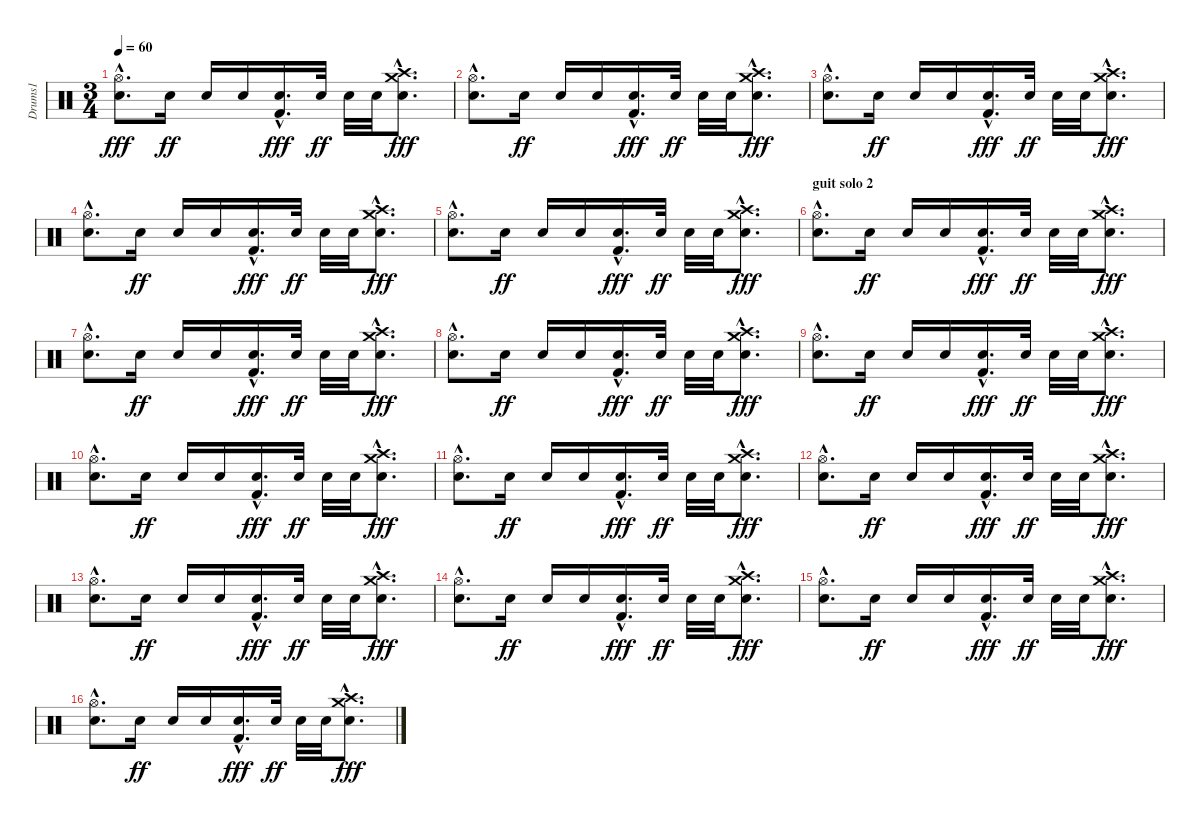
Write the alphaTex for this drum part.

\track ("Drums1" "Drums1") {instrument percussion}
\staff {score}
\articulation defaults
\ts (3 4)
\tempo 60
\clef neutral
\ks c
("Hi-Hat (open)"{hac} "Electric Snare (hit)"{hac}).8{d dy fff} "Electric Snare (hit)".16{dy ff} "Electric Snare (hit)".16 "Electric Snare (hit)".16 ("Kick (hit) 2"{hac} "Electric Snare (hit)"{hac}).16{d dy fff} "Electric Snare (hit)".32{dy ff} "Electric Snare (hit)".32 "Electric Snare (hit)".32 ("Crash high (hit)"{hac} "Crash medium (hit)"{hac} "Electric Snare (hit)"{hac}).8{d dy fff} |
("Hi-Hat (open)"{hac} "Electric Snare (hit)"{hac}).8{d} "Electric Snare (hit)".16{dy ff} "Electric Snare (hit)".16 "Electric Snare (hit)".16 ("Kick (hit) 2"{hac} "Electric Snare (hit)"{hac}).16{d dy fff} "Electric Snare (hit)".32{dy ff} "Electric Snare (hit)".32 "Electric Snare (hit)".32 ("Crash high (hit)"{hac} "Crash medium (hit)"{hac} "Electric Snare (hit)"{hac}).8{d dy fff} |
("Hi-Hat (open)"{hac} "Electric Snare (hit)"{hac}).8{d} "Electric Snare (hit)".16{dy ff} "Electric Snare (hit)".16 "Electric Snare (hit)".16 ("Kick (hit) 2"{hac} "Electric Snare (hit)"{hac}).16{d dy fff} "Electric Snare (hit)".32{dy ff} "Electric Snare (hit)".32 "Electric Snare (hit)".32 ("Crash high (hit)"{hac} "Crash medium (hit)"{hac} "Electric Snare (hit)"{hac}).8{d dy fff} |
("Hi-Hat (open)"{hac} "Electric Snare (hit)"{hac}).8{d} "Electric Snare (hit)".16{dy ff} "Electric Snare (hit)".16 "Electric Snare (hit)".16 ("Kick (hit) 2"{hac} "Electric Snare (hit)"{hac}).16{d dy fff} "Electric Snare (hit)".32{dy ff} "Electric Snare (hit)".32 "Electric Snare (hit)".32 ("Crash high (hit)"{hac} "Crash medium (hit)"{hac} "Electric Snare (hit)"{hac}).8{d dy fff} |
("Hi-Hat (open)"{hac} "Electric Snare (hit)"{hac}).8{d} "Electric Snare (hit)".16{dy ff} "Electric Snare (hit)".16 "Electric Snare (hit)".16 ("Kick (hit) 2"{hac} "Electric Snare (hit)"{hac}).16{d dy fff} "Electric Snare (hit)".32{dy ff} "Electric Snare (hit)".32 "Electric Snare (hit)".32 ("Crash high (hit)"{hac} "Crash medium (hit)"{hac} "Electric Snare (hit)"{hac}).8{d dy fff} |
\section ("" "guit solo 2")
("Hi-Hat (open)"{hac} "Electric Snare (hit)"{hac}).8{d} "Electric Snare (hit)".16{dy ff} "Electric Snare (hit)".16 "Electric Snare (hit)".16 ("Kick (hit) 2"{hac} "Electric Snare (hit)"{hac}).16{d dy fff} "Electric Snare (hit)".32{dy ff} "Electric Snare (hit)".32 "Electric Snare (hit)".32 ("Crash high (hit)"{hac} "Crash medium (hit)"{hac} "Electric Snare (hit)"{hac}).8{d dy fff} |
("Hi-Hat (open)"{hac} "Electric Snare (hit)"{hac}).8{d} "Electric Snare (hit)".16{dy ff} "Electric Snare (hit)".16 "Electric Snare (hit)".16 ("Kick (hit) 2"{hac} "Electric Snare (hit)"{hac}).16{d dy fff} "Electric Snare (hit)".32{dy ff} "Electric Snare (hit)".32 "Electric Snare (hit)".32 ("Crash high (hit)"{hac} "Crash medium (hit)"{hac} "Electric Snare (hit)"{hac}).8{d dy fff} |
("Hi-Hat (open)"{hac} "Electric Snare (hit)"{hac}).8{d} "Electric Snare (hit)".16{dy ff} "Electric Snare (hit)".16 "Electric Snare (hit)".16 ("Kick (hit) 2"{hac} "Electric Snare (hit)"{hac}).16{d dy fff} "Electric Snare (hit)".32{dy ff} "Electric Snare (hit)".32 "Electric Snare (hit)".32 ("Crash high (hit)"{hac} "Crash medium (hit)"{hac} "Electric Snare (hit)"{hac}).8{d dy fff} |
("Hi-Hat (open)"{hac} "Electric Snare (hit)"{hac}).8{d} "Electric Snare (hit)".16{dy ff} "Electric Snare (hit)".16 "Electric Snare (hit)".16 ("Kick (hit) 2"{hac} "Electric Snare (hit)"{hac}).16{d dy fff} "Electric Snare (hit)".32{dy ff} "Electric Snare (hit)".32 "Electric Snare (hit)".32 ("Crash high (hit)"{hac} "Crash medium (hit)"{hac} "Electric Snare (hit)"{hac}).8{d dy fff} |
("Hi-Hat (open)"{hac} "Electric Snare (hit)"{hac}).8{d} "Electric Snare (hit)".16{dy ff} "Electric Snare (hit)".16 "Electric Snare (hit)".16 ("Kick (hit) 2"{hac} "Electric Snare (hit)"{hac}).16{d dy fff} "Electric Snare (hit)".32{dy ff} "Electric Snare (hit)".32 "Electric Snare (hit)".32 ("Crash high (hit)"{hac} "Crash medium (hit)"{hac} "Electric Snare (hit)"{hac}).8{d dy fff} |
("Hi-Hat (open)"{hac} "Electric Snare (hit)"{hac}).8{d} "Electric Snare (hit)".16{dy ff} "Electric Snare (hit)".16 "Electric Snare (hit)".16 ("Kick (hit) 2"{hac} "Electric Snare (hit)"{hac}).16{d dy fff} "Electric Snare (hit)".32{dy ff} "Electric Snare (hit)".32 "Electric Snare (hit)".32 ("Crash high (hit)"{hac} "Crash medium (hit)"{hac} "Electric Snare (hit)"{hac}).8{d dy fff} |
("Hi-Hat (open)"{hac} "Electric Snare (hit)"{hac}).8{d} "Electric Snare (hit)".16{dy ff} "Electric Snare (hit)".16 "Electric Snare (hit)".16 ("Kick (hit) 2"{hac} "Electric Snare (hit)"{hac}).16{d dy fff} "Electric Snare (hit)".32{dy ff} "Electric Snare (hit)".32 "Electric Snare (hit)".32 ("Crash high (hit)"{hac} "Crash medium (hit)"{hac} "Electric Snare (hit)"{hac}).8{d dy fff} |
("Hi-Hat (open)"{hac} "Electric Snare (hit)"{hac}).8{d} "Electric Snare (hit)".16{dy ff} "Electric Snare (hit)".16 "Electric Snare (hit)".16 ("Kick (hit) 2"{hac} "Electric Snare (hit)"{hac}).16{d dy fff} "Electric Snare (hit)".32{dy ff} "Electric Snare (hit)".32 "Electric Snare (hit)".32 ("Crash high (hit)"{hac} "Crash medium (hit)"{hac} "Electric Snare (hit)"{hac}).8{d dy fff} |
("Hi-Hat (open)"{hac} "Electric Snare (hit)"{hac}).8{d} "Electric Snare (hit)".16{dy ff} "Electric Snare (hit)".16 "Electric Snare (hit)".16 ("Kick (hit) 2"{hac} "Electric Snare (hit)"{hac}).16{d dy fff} "Electric Snare (hit)".32{dy ff} "Electric Snare (hit)".32 "Electric Snare (hit)".32 ("Crash high (hit)"{hac} "Crash medium (hit)"{hac} "Electric Snare (hit)"{hac}).8{d dy fff} |
("Hi-Hat (open)"{hac} "Electric Snare (hit)"{hac}).8{d} "Electric Snare (hit)".16{dy ff} "Electric Snare (hit)".16 "Electric Snare (hit)".16 ("Kick (hit) 2"{hac} "Electric Snare (hit)"{hac}).16{d dy fff} "Electric Snare (hit)".32{dy ff} "Electric Snare (hit)".32 "Electric Snare (hit)".32 ("Crash high (hit)"{hac} "Crash medium (hit)"{hac} "Electric Snare (hit)"{hac}).8{d dy fff} |
("Hi-Hat (open)"{hac} "Electric Snare (hit)"{hac}).8{d} "Electric Snare (hit)".16{dy ff} "Electric Snare (hit)".16 "Electric Snare (hit)".16 ("Kick (hit) 2"{hac} "Electric Snare (hit)"{hac}).16{d dy fff} "Electric Snare (hit)".32{dy ff} "Electric Snare (hit)".32 "Electric Snare (hit)".32 ("Crash high (hit)"{hac} "Crash medium (hit)"{hac} "Electric Snare (hit)"{hac}).8{d dy fff}
